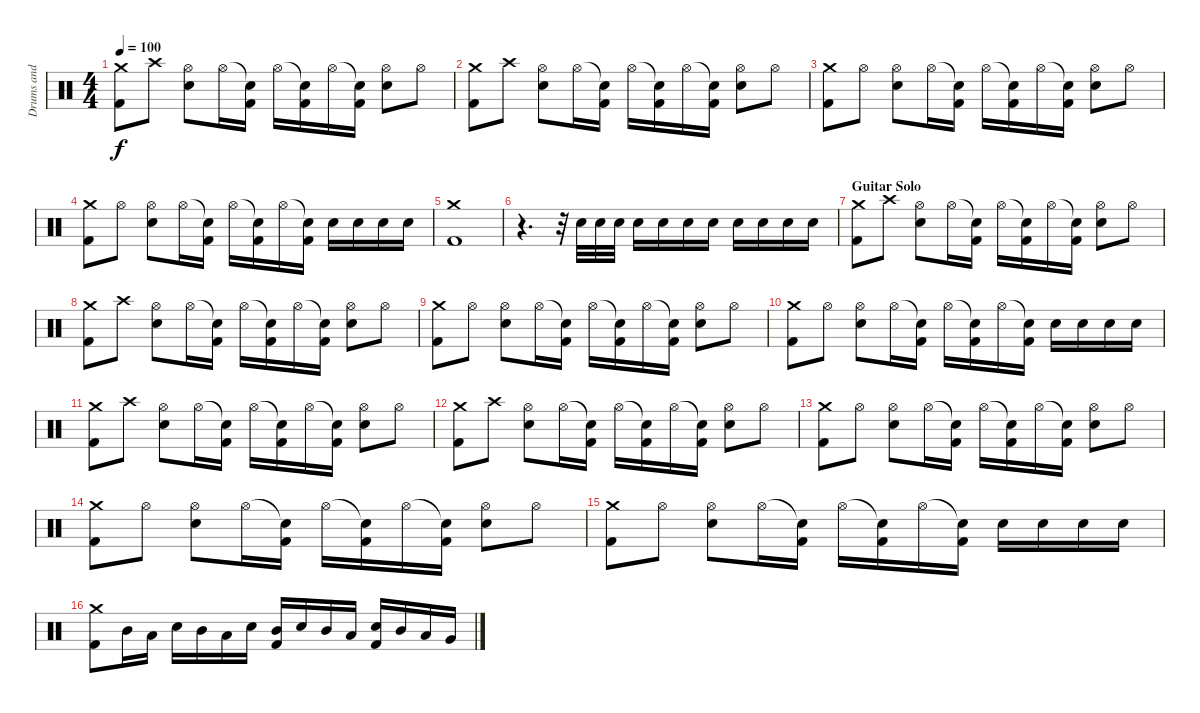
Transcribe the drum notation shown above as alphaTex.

\track ("Drums and Percussion" "Drums and ") {instrument percussion}
\staff {score}
\articulation defaults
\ts (4 4)
\tempo 100
\clef neutral
\ks c
("Crash medium (hit)" "Kick (hit) 2").8{dy f} "Crash high (hit)".8 ("Hi-Hat (open)" "Electric Snare (hit)").8 "Hi-Hat (open)".16 ("Snare (hit)"{t} "Kick (hit) 2").16 "Hi-Hat (open)".16 ("Snare (hit)"{t} "Kick (hit) 2").16 "Hi-Hat (open)".16 ("Snare (hit)"{t} "Kick (hit) 2").16 ("Hi-Hat (open)" "Electric Snare (hit)").8 "Hi-Hat (open)".8 |
("Crash medium (hit)" "Kick (hit) 2").8 "Crash high (hit)".8 ("Hi-Hat (open)" "Electric Snare (hit)").8 "Hi-Hat (open)".16 ("Snare (hit)"{t} "Kick (hit) 2").16 "Hi-Hat (open)".16 ("Snare (hit)"{t} "Kick (hit) 2").16 "Hi-Hat (open)".16 ("Snare (hit)"{t} "Kick (hit) 2").16 ("Hi-Hat (open)" "Electric Snare (hit)").8 "Hi-Hat (open)".8 |
("Crash medium (hit)" "Kick (hit) 2").8 "Hi-Hat (open)".8 ("Hi-Hat (open)" "Electric Snare (hit)").8 "Hi-Hat (open)".16 ("Snare (hit)"{t} "Kick (hit) 2").16 "Hi-Hat (open)".16 ("Snare (hit)"{t} "Kick (hit) 2").16 "Hi-Hat (open)".16 ("Snare (hit)"{t} "Kick (hit) 2").16 ("Hi-Hat (open)" "Electric Snare (hit)").8 "Hi-Hat (open)".8 |
("Crash medium (hit)" "Kick (hit) 2").8 "Hi-Hat (open)".8 ("Hi-Hat (open)" "Electric Snare (hit)").8 "Hi-Hat (open)".16 ("Snare (hit)"{t} "Kick (hit) 2").16 "Hi-Hat (open)".16 ("Snare (hit)"{t} "Kick (hit) 2").16 "Hi-Hat (open)".16 ("Snare (hit)"{t} "Kick (hit) 2").16 "Electric Snare (hit)".16 "Electric Snare (hit)".16 "Electric Snare (hit)".16 "Electric Snare (hit)".16 |
("Crash medium (hit)" "Kick (hit) 2").1 |
r.4{d} r.32 "Electric Snare (hit)".32 "Electric Snare (hit)".32 "Electric Snare (hit)".32 "Electric Snare (hit)".16 "Electric Snare (hit)".16 "Electric Snare (hit)".16 "Electric Snare (hit)".16 "Electric Snare (hit)".16 "Electric Snare (hit)".16 "Electric Snare (hit)".16 "Electric Snare (hit)".16 |
\section ("" "Guitar Solo")
("Crash medium (hit)" "Kick (hit) 2").8 "Crash high (hit)".8 ("Hi-Hat (open)" "Electric Snare (hit)").8 "Hi-Hat (open)".16 ("Snare (hit)"{t} "Kick (hit) 2").16 "Hi-Hat (open)".16 ("Snare (hit)"{t} "Kick (hit) 2").16 "Hi-Hat (open)".16 ("Snare (hit)"{t} "Kick (hit) 2").16 ("Hi-Hat (open)" "Electric Snare (hit)").8 "Hi-Hat (open)".8 |
("Crash medium (hit)" "Kick (hit) 2").8 "Crash high (hit)".8 ("Hi-Hat (open)" "Electric Snare (hit)").8 "Hi-Hat (open)".16 ("Snare (hit)"{t} "Kick (hit) 2").16 "Hi-Hat (open)".16 ("Snare (hit)"{t} "Kick (hit) 2").16 "Hi-Hat (open)".16 ("Snare (hit)"{t} "Kick (hit) 2").16 ("Hi-Hat (open)" "Electric Snare (hit)").8 "Hi-Hat (open)".8 |
("Crash medium (hit)" "Kick (hit) 2").8 "Hi-Hat (open)".8 ("Hi-Hat (open)" "Electric Snare (hit)").8 "Hi-Hat (open)".16 ("Snare (hit)"{t} "Kick (hit) 2").16 "Hi-Hat (open)".16 ("Snare (hit)"{t} "Kick (hit) 2").16 "Hi-Hat (open)".16 ("Snare (hit)"{t} "Kick (hit) 2").16 ("Hi-Hat (open)" "Electric Snare (hit)").8 "Hi-Hat (open)".8 |
("Crash medium (hit)" "Kick (hit) 2").8 "Hi-Hat (open)".8 ("Hi-Hat (open)" "Electric Snare (hit)").8 "Hi-Hat (open)".16 ("Snare (hit)"{t} "Kick (hit) 2").16 "Hi-Hat (open)".16 ("Snare (hit)"{t} "Kick (hit) 2").16 "Hi-Hat (open)".16 ("Snare (hit)"{t} "Kick (hit) 2").16 "Electric Snare (hit)".16 "Electric Snare (hit)".16 "Electric Snare (hit)".16 "Electric Snare (hit)".16 |
("Crash medium (hit)" "Kick (hit) 2").8 "Crash high (hit)".8 ("Hi-Hat (open)" "Electric Snare (hit)").8 "Hi-Hat (open)".16 ("Snare (hit)"{t} "Kick (hit) 2").16 "Hi-Hat (open)".16 ("Snare (hit)"{t} "Kick (hit) 2").16 "Hi-Hat (open)".16 ("Snare (hit)"{t} "Kick (hit) 2").16 ("Hi-Hat (open)" "Electric Snare (hit)").8 "Hi-Hat (open)".8 |
("Crash medium (hit)" "Kick (hit) 2").8 "Crash high (hit)".8 ("Hi-Hat (open)" "Electric Snare (hit)").8 "Hi-Hat (open)".16 ("Snare (hit)"{t} "Kick (hit) 2").16 "Hi-Hat (open)".16 ("Snare (hit)"{t} "Kick (hit) 2").16 "Hi-Hat (open)".16 ("Snare (hit)"{t} "Kick (hit) 2").16 ("Hi-Hat (open)" "Electric Snare (hit)").8 "Hi-Hat (open)".8 |
("Crash medium (hit)" "Kick (hit) 2").8 "Hi-Hat (open)".8 ("Hi-Hat (open)" "Electric Snare (hit)").8 "Hi-Hat (open)".16 ("Snare (hit)"{t} "Kick (hit) 2").16 "Hi-Hat (open)".16 ("Snare (hit)"{t} "Kick (hit) 2").16 "Hi-Hat (open)".16 ("Snare (hit)"{t} "Kick (hit) 2").16 ("Hi-Hat (open)" "Electric Snare (hit)").8 "Hi-Hat (open)".8 |
("Crash medium (hit)" "Kick (hit) 2").8 "Hi-Hat (open)".8 ("Hi-Hat (open)" "Electric Snare (hit)").8 "Hi-Hat (open)".16 ("Snare (hit)"{t} "Kick (hit) 2").16 "Hi-Hat (open)".16 ("Snare (hit)"{t} "Kick (hit) 2").16 "Hi-Hat (open)".16 ("Snare (hit)"{t} "Kick (hit) 2").16 ("Hi-Hat (open)" "Electric Snare (hit)").8 "Hi-Hat (open)".8 |
("Crash medium (hit)" "Kick (hit) 2").8 "Hi-Hat (open)".8 ("Hi-Hat (open)" "Electric Snare (hit)").8 "Hi-Hat (open)".16 ("Snare (hit)"{t} "Kick (hit) 2").16 "Hi-Hat (open)".16 ("Snare (hit)"{t} "Kick (hit) 2").16 "Hi-Hat (open)".16 ("Snare (hit)"{t} "Kick (hit) 2").16 "Electric Snare (hit)".16 "Electric Snare (hit)".16 "Electric Snare (hit)".16 "Electric Snare (hit)".16 |
("Crash medium (hit)" "Kick (hit) 2").8 "Mid Tom (hit)".16 "Low Tom (hit)".16 "Electric Snare (hit)".16 "Mid Tom (hit)".16 "Low Tom (hit)".16 "Electric Snare (hit)".16 ("Mid Tom (hit)" "Kick (hit) 2").16 "Electric Snare (hit)".16 "Mid Tom (hit)".16 "Low Tom (hit)".16 ("Electric Snare (hit)" "Kick (hit) 2").16 "Mid Tom (hit)".16 "Low Tom (hit)".16 "Very Low Tom (hit)".16
